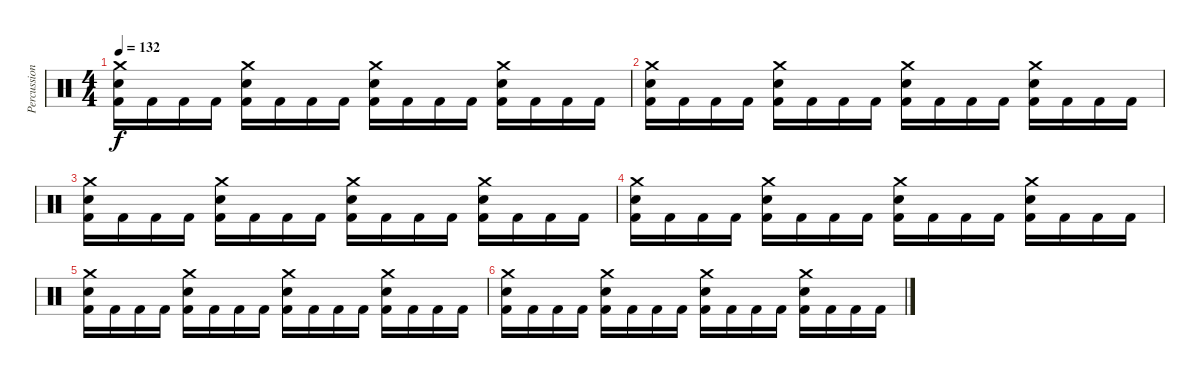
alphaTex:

\track ("Percussion" "Percussion") {instrument percussion}
\staff {score}
\articulation defaults
\ts (4 4)
\tempo 132
\clef neutral
\ks c
("Snare (hit) 2" "Kick (hit) 2" "Crash medium (hit)").16{dy f} "Kick (hit) 2".16 "Kick (hit) 2".16 "Kick (hit) 2".16 ("Snare (hit) 2" "Kick (hit) 2" "Crash medium (hit)").16 "Kick (hit) 2".16 "Kick (hit) 2".16 "Kick (hit) 2".16 ("Snare (hit) 2" "Kick (hit) 2" "Crash medium (hit)").16 "Kick (hit) 2".16 "Kick (hit) 2".16 "Kick (hit) 2".16 ("Snare (hit) 2" "Kick (hit) 2" "Crash medium (hit)").16 "Kick (hit) 2".16 "Kick (hit) 2".16 "Kick (hit) 2".16 |
("Snare (hit) 2" "Kick (hit) 2" "Crash medium (hit)").16 "Kick (hit) 2".16 "Kick (hit) 2".16 "Kick (hit) 2".16 ("Snare (hit) 2" "Kick (hit) 2" "Crash medium (hit)").16 "Kick (hit) 2".16 "Kick (hit) 2".16 "Kick (hit) 2".16 ("Snare (hit) 2" "Kick (hit) 2" "Crash medium (hit)").16 "Kick (hit) 2".16 "Kick (hit) 2".16 "Kick (hit) 2".16 ("Snare (hit) 2" "Kick (hit) 2" "Crash medium (hit)").16 "Kick (hit) 2".16 "Kick (hit) 2".16 "Kick (hit) 2".16 |
("Snare (hit) 2" "Kick (hit) 2" "Crash medium (hit)").16 "Kick (hit) 2".16 "Kick (hit) 2".16 "Kick (hit) 2".16 ("Snare (hit) 2" "Kick (hit) 2" "Crash medium (hit)").16 "Kick (hit) 2".16 "Kick (hit) 2".16 "Kick (hit) 2".16 ("Snare (hit) 2" "Kick (hit) 2" "Crash medium (hit)").16 "Kick (hit) 2".16 "Kick (hit) 2".16 "Kick (hit) 2".16 ("Snare (hit) 2" "Kick (hit) 2" "Crash medium (hit)").16 "Kick (hit) 2".16 "Kick (hit) 2".16 "Kick (hit) 2".16 |
("Snare (hit) 2" "Kick (hit) 2" "Crash medium (hit)").16 "Kick (hit) 2".16 "Kick (hit) 2".16 "Kick (hit) 2".16 ("Snare (hit) 2" "Kick (hit) 2" "Crash medium (hit)").16 "Kick (hit) 2".16 "Kick (hit) 2".16 "Kick (hit) 2".16 ("Snare (hit) 2" "Kick (hit) 2" "Crash medium (hit)").16 "Kick (hit) 2".16 "Kick (hit) 2".16 "Kick (hit) 2".16 ("Snare (hit) 2" "Kick (hit) 2" "Crash medium (hit)").16 "Kick (hit) 2".16 "Kick (hit) 2".16 "Kick (hit) 2".16 |
("Snare (hit) 2" "Kick (hit) 2" "Crash medium (hit)").16 "Kick (hit) 2".16 "Kick (hit) 2".16 "Kick (hit) 2".16 ("Snare (hit) 2" "Kick (hit) 2" "Crash medium (hit)").16 "Kick (hit) 2".16 "Kick (hit) 2".16 "Kick (hit) 2".16 ("Snare (hit) 2" "Kick (hit) 2" "Crash medium (hit)").16 "Kick (hit) 2".16 "Kick (hit) 2".16 "Kick (hit) 2".16 ("Snare (hit) 2" "Kick (hit) 2" "Crash medium (hit)").16 "Kick (hit) 2".16 "Kick (hit) 2".16 "Kick (hit) 2".16 |
("Snare (hit) 2" "Kick (hit) 2" "Crash medium (hit)").16 "Kick (hit) 2".16 "Kick (hit) 2".16 "Kick (hit) 2".16 ("Snare (hit) 2" "Kick (hit) 2" "Crash medium (hit)").16 "Kick (hit) 2".16 "Kick (hit) 2".16 "Kick (hit) 2".16 ("Snare (hit) 2" "Kick (hit) 2" "Crash medium (hit)").16 "Kick (hit) 2".16 "Kick (hit) 2".16 "Kick (hit) 2".16 ("Snare (hit) 2" "Kick (hit) 2" "Crash medium (hit)").16 "Kick (hit) 2".16 "Kick (hit) 2".16 "Kick (hit) 2".16
